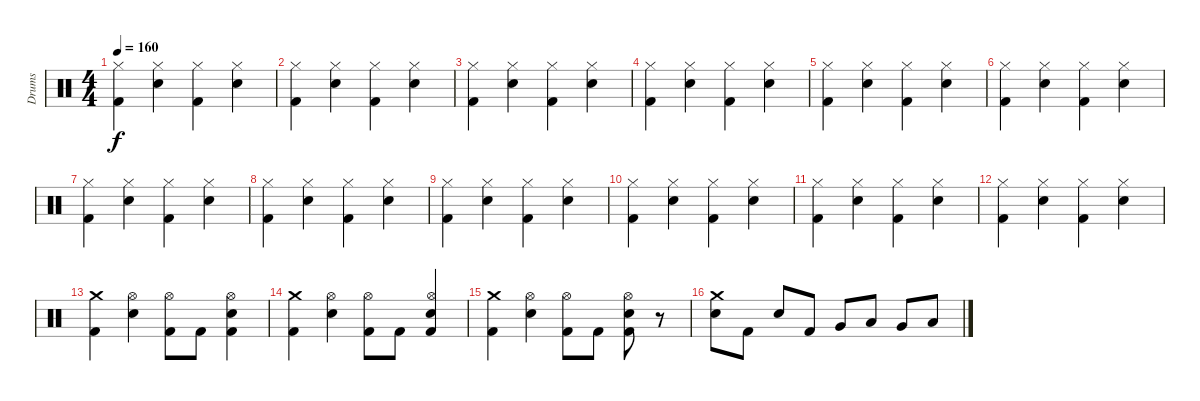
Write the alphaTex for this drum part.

\track ("Drums" "Drums") {instrument percussion}
\staff {score}
\articulation defaults
\ts (4 4)
\tempo 160
\clef neutral
\ks c
("Kick (hit) 2" "Hi-Hat (closed)").4{dy f} ("Electric Snare (hit)" "Hi-Hat (closed)").4 ("Kick (hit) 2" "Hi-Hat (closed)").4 ("Electric Snare (hit)" "Hi-Hat (closed)").4 |
("Kick (hit) 2" "Hi-Hat (closed)").4 ("Electric Snare (hit)" "Hi-Hat (closed)").4 ("Kick (hit) 2" "Hi-Hat (closed)").4 ("Electric Snare (hit)" "Hi-Hat (closed)").4 |
("Kick (hit) 2" "Hi-Hat (closed)").4 ("Electric Snare (hit)" "Hi-Hat (closed)").4 ("Kick (hit) 2" "Hi-Hat (closed)").4 ("Electric Snare (hit)" "Hi-Hat (closed)").4 |
("Kick (hit) 2" "Hi-Hat (closed)").4 ("Electric Snare (hit)" "Hi-Hat (closed)").4 ("Kick (hit) 2" "Hi-Hat (closed)").4 ("Electric Snare (hit)" "Hi-Hat (closed)").4 |
("Kick (hit) 2" "Hi-Hat (closed)").4 ("Electric Snare (hit)" "Hi-Hat (closed)").4 ("Kick (hit) 2" "Hi-Hat (closed)").4 ("Electric Snare (hit)" "Hi-Hat (closed)").4 |
("Kick (hit) 2" "Hi-Hat (closed)").4 ("Electric Snare (hit)" "Hi-Hat (closed)").4 ("Kick (hit) 2" "Hi-Hat (closed)").4 ("Electric Snare (hit)" "Hi-Hat (closed)").4 |
("Kick (hit) 2" "Hi-Hat (closed)").4 ("Electric Snare (hit)" "Hi-Hat (closed)").4 ("Kick (hit) 2" "Hi-Hat (closed)").4 ("Electric Snare (hit)" "Hi-Hat (closed)").4 |
("Kick (hit) 2" "Hi-Hat (closed)").4 ("Electric Snare (hit)" "Hi-Hat (closed)").4 ("Kick (hit) 2" "Hi-Hat (closed)").4 ("Electric Snare (hit)" "Hi-Hat (closed)").4 |
("Kick (hit) 2" "Hi-Hat (closed)").4 ("Electric Snare (hit)" "Hi-Hat (closed)").4 ("Kick (hit) 2" "Hi-Hat (closed)").4 ("Electric Snare (hit)" "Hi-Hat (closed)").4 |
("Kick (hit) 2" "Hi-Hat (closed)").4 ("Electric Snare (hit)" "Hi-Hat (closed)").4 ("Kick (hit) 2" "Hi-Hat (closed)").4 ("Electric Snare (hit)" "Hi-Hat (closed)").4 |
("Kick (hit) 2" "Hi-Hat (closed)").4 ("Electric Snare (hit)" "Hi-Hat (closed)").4 ("Kick (hit) 2" "Hi-Hat (closed)").4 ("Electric Snare (hit)" "Hi-Hat (closed)").4 |
("Kick (hit) 2" "Hi-Hat (closed)").4 ("Electric Snare (hit)" "Hi-Hat (closed)").4 ("Kick (hit) 2" "Hi-Hat (closed)").4 ("Electric Snare (hit)" "Hi-Hat (closed)").4 |
("Kick (hit) 2" "Crash medium (hit)").4 ("Electric Snare (hit)" "Hi-Hat (open)").4 ("Kick (hit) 2" "Hi-Hat (open)").8 "Kick (hit) 2".8 ("Electric Snare (hit)" "Hi-Hat (open)" "Kick (hit) 2").4 |
("Kick (hit) 2" "Crash medium (hit)").4 ("Electric Snare (hit)" "Hi-Hat (open)").4 ("Kick (hit) 2" "Hi-Hat (open)").8 "Kick (hit) 2".8 ("Snare (hit) 2" "Hi-Hat (open)" "Kick (hit) 2").4 |
("Kick (hit) 2" "Crash medium (hit)").4 ("Electric Snare (hit)" "Hi-Hat (open)").4 ("Kick (hit) 2" "Hi-Hat (open)").8 "Kick (hit) 2".8 ("Electric Snare (hit)" "Hi-Hat (open)" "Kick (hit) 2").8 r.8 |
("Crash medium (hit)" "Electric Snare (hit)").8 "Kick (hit) 2".8 "Electric Snare (hit)".8 "Kick (hit) 2".8 "Very Low Tom (hit)".8 "Low Tom (hit)".8 "Very Low Tom (hit)".8 "Low Floor Tom (hit)".8
